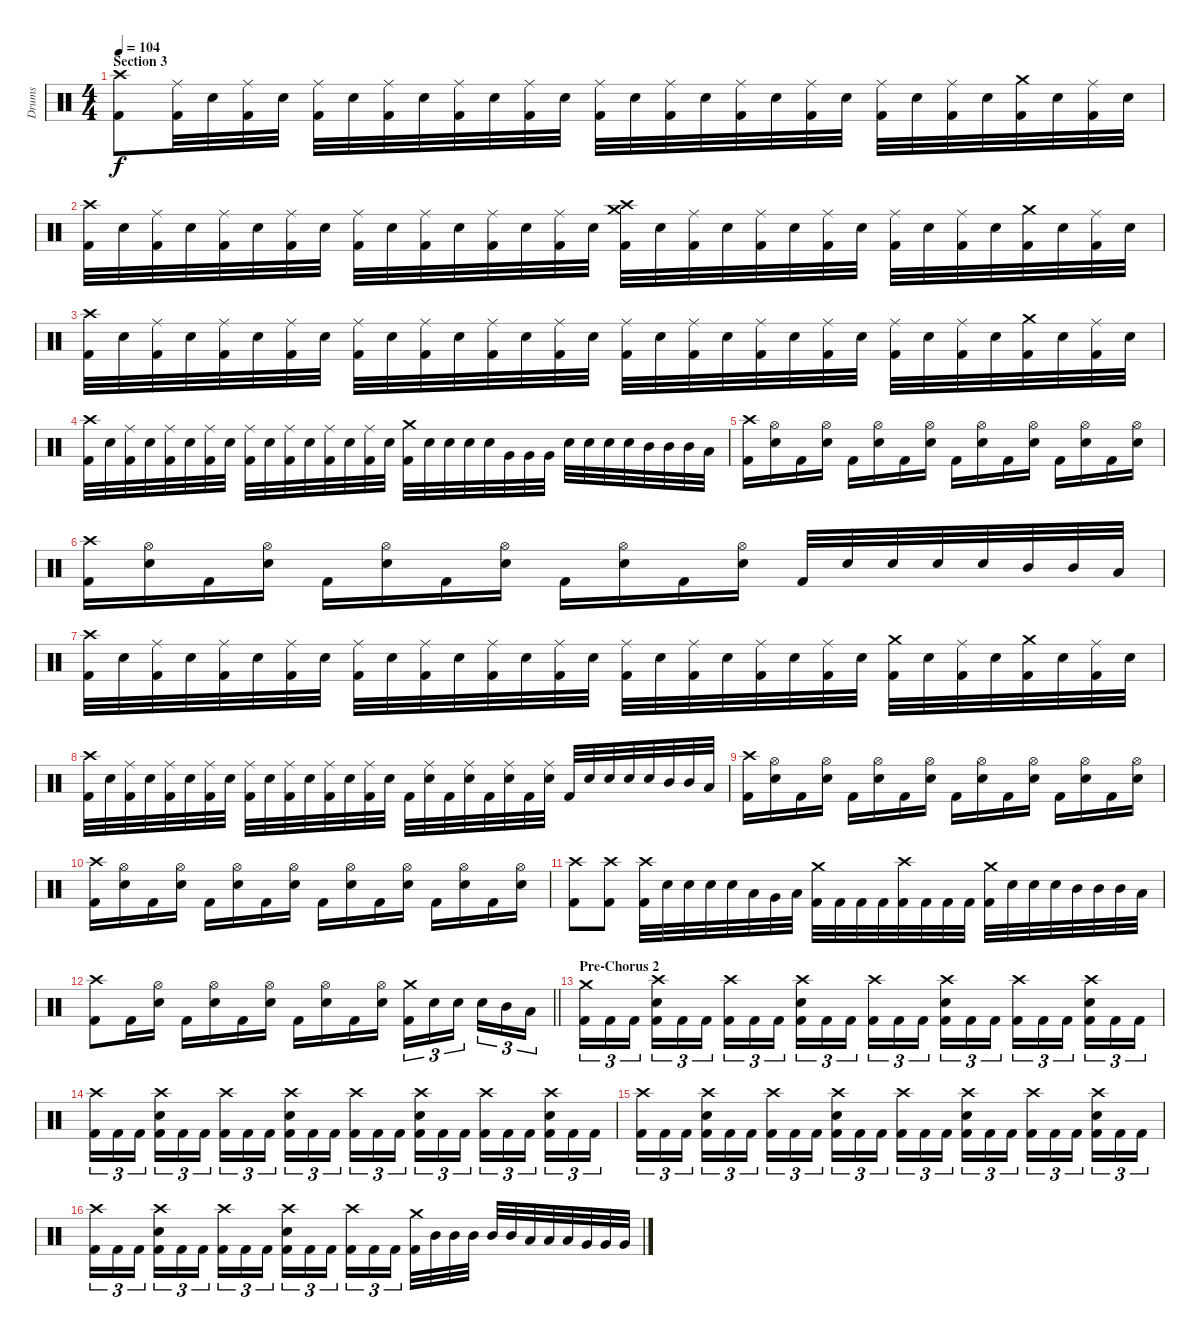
\track ("Drums" "Drums") {instrument percussion}
\staff {score}
\articulation defaults
\ts (4 4)
\section ("" "Section 3")
\tempo 104
\clef neutral
\ks c
("Crash high (hit)" "Kick (hit) 2").8{dy f} ("Ride (middle)" "Kick (hit) 2").32 "Electric Snare (hit)".32 ("Ride (middle)" "Kick (hit) 2").32 "Electric Snare (hit)".32 ("Ride (middle)" "Kick (hit) 2").32 "Electric Snare (hit)".32 ("Ride (middle)" "Kick (hit) 2").32 "Electric Snare (hit)".32 ("Ride (middle)" "Kick (hit) 2").32 "Electric Snare (hit)".32 ("Ride (middle)" "Kick (hit) 2").32 "Electric Snare (hit)".32 ("Ride (middle)" "Kick (hit) 2").32 "Electric Snare (hit)".32 ("Ride (middle)" "Kick (hit) 2").32 "Electric Snare (hit)".32 ("Ride (middle)" "Kick (hit) 2").32 "Electric Snare (hit)".32 ("Ride (middle)" "Kick (hit) 2").32 "Electric Snare (hit)".32 ("Ride (middle)" "Kick (hit) 2").32 "Electric Snare (hit)".32 ("Ride (middle)" "Kick (hit) 2").32 "Electric Snare (hit)".32 ("Crash medium (hit)" "Kick (hit) 2").32 "Electric Snare (hit)".32 ("Ride (middle)" "Kick (hit) 2").32 "Electric Snare (hit)".32 |
("Crash high (hit)" "Kick (hit) 2").32 "Electric Snare (hit)".32 ("Ride (middle)" "Kick (hit) 2").32 "Electric Snare (hit)".32 ("Ride (middle)" "Kick (hit) 2").32 "Electric Snare (hit)".32 ("Ride (middle)" "Kick (hit) 2").32 "Electric Snare (hit)".32 ("Ride (middle)" "Kick (hit) 2").32 "Electric Snare (hit)".32 ("Ride (middle)" "Kick (hit) 2").32 "Electric Snare (hit)".32 ("Ride (middle)" "Kick (hit) 2").32 "Electric Snare (hit)".32 ("Ride (middle)" "Kick (hit) 2").32 "Electric Snare (hit)".32 ("Crash medium (hit)" "Crash high (hit)" "Kick (hit) 2").32 "Electric Snare (hit)".32 ("Ride (middle)" "Kick (hit) 2").32 "Electric Snare (hit)".32 ("Ride (middle)" "Kick (hit) 2").32 "Electric Snare (hit)".32 ("Ride (middle)" "Kick (hit) 2").32 "Electric Snare (hit)".32 ("Ride (middle)" "Kick (hit) 2").32 "Electric Snare (hit)".32 ("Ride (middle)" "Kick (hit) 2").32 "Electric Snare (hit)".32 ("Crash medium (hit)" "Kick (hit) 2").32 "Electric Snare (hit)".32 ("Ride (middle)" "Kick (hit) 2").32 "Electric Snare (hit)".32 |
("Crash high (hit)" "Kick (hit) 2").32 "Electric Snare (hit)".32 ("Ride (middle)" "Kick (hit) 2").32 "Electric Snare (hit)".32 ("Ride (middle)" "Kick (hit) 2").32 "Electric Snare (hit)".32 ("Ride (middle)" "Kick (hit) 2").32 "Electric Snare (hit)".32 ("Ride (middle)" "Kick (hit) 2").32 "Electric Snare (hit)".32 ("Ride (middle)" "Kick (hit) 2").32 "Electric Snare (hit)".32 ("Ride (middle)" "Kick (hit) 2").32 "Electric Snare (hit)".32 ("Ride (middle)" "Kick (hit) 2").32 "Electric Snare (hit)".32 ("Ride (middle)" "Kick (hit) 2").32 "Electric Snare (hit)".32 ("Ride (middle)" "Kick (hit) 2").32 "Electric Snare (hit)".32 ("Ride (middle)" "Kick (hit) 2").32 "Electric Snare (hit)".32 ("Ride (middle)" "Kick (hit) 2").32 "Electric Snare (hit)".32 ("Ride (middle)" "Kick (hit) 2").32 "Electric Snare (hit)".32 ("Ride (middle)" "Kick (hit) 2").32 "Electric Snare (hit)".32 ("Crash medium (hit)" "Kick (hit) 2").32 "Electric Snare (hit)".32 ("Ride (middle)" "Kick (hit) 2").32 "Electric Snare (hit)".32 |
("Crash high (hit)" "Kick (hit) 2").32 "Electric Snare (hit)".32 ("Ride (middle)" "Kick (hit) 2").32 "Electric Snare (hit)".32 ("Ride (middle)" "Kick (hit) 2").32 "Electric Snare (hit)".32 ("Ride (middle)" "Kick (hit) 2").32 "Electric Snare (hit)".32 ("Ride (middle)" "Kick (hit) 2").32 "Electric Snare (hit)".32 ("Ride (middle)" "Kick (hit) 2").32 "Electric Snare (hit)".32 ("Ride (middle)" "Kick (hit) 2").32 "Electric Snare (hit)".32 ("Ride (middle)" "Kick (hit) 2").32 "Electric Snare (hit)".32 ("Crash medium (hit)" "Kick (hit) 2").32 "Electric Snare (hit)".32 "Electric Snare (hit)".32 "Electric Snare (hit)".32 "Electric Snare (hit)".32 "Very Low Tom (hit)".32 "Very Low Tom (hit)".32 "Very Low Tom (hit)".32 "Electric Snare (hit)".32 "Electric Snare (hit)".32 "Electric Snare (hit)".32 "Electric Snare (hit)".32 "Mid Tom (hit)".32 "Mid Tom (hit)".32 "Mid Tom (hit)".32 "Low Tom (hit)".32 |
("Crash high (hit)" "Kick (hit) 2").16 ("Hi-Hat (open)" "Electric Snare (hit)").16 "Kick (hit) 2".16 ("Hi-Hat (open)" "Electric Snare (hit)").16 "Kick (hit) 2".16 ("Hi-Hat (open)" "Electric Snare (hit)").16 "Kick (hit) 2".16 ("Hi-Hat (open)" "Electric Snare (hit)").16 "Kick (hit) 2".16 ("Hi-Hat (open)" "Electric Snare (hit)").16 "Kick (hit) 2".16 ("Hi-Hat (open)" "Electric Snare (hit)").16 "Kick (hit) 2".16 ("Hi-Hat (open)" "Electric Snare (hit)").16 "Kick (hit) 2".16 ("Hi-Hat (open)" "Electric Snare (hit)").16 |
("Crash high (hit)" "Kick (hit) 2").16 ("Hi-Hat (open)" "Electric Snare (hit)").16 "Kick (hit) 2".16 ("Hi-Hat (open)" "Electric Snare (hit)").16 "Kick (hit) 2".16 ("Hi-Hat (open)" "Electric Snare (hit)").16 "Kick (hit) 2".16 ("Hi-Hat (open)" "Electric Snare (hit)").16 "Kick (hit) 2".16 ("Hi-Hat (open)" "Electric Snare (hit)").16 "Kick (hit) 2".16 ("Hi-Hat (open)" "Electric Snare (hit)").16 "Kick (hit) 2".32 "Electric Snare (hit)".32 "Electric Snare (hit)".32 "Electric Snare (hit)".32 "Electric Snare (hit)".32 "Mid Tom (hit)".32 "Mid Tom (hit)".32 "Low Tom (hit)".32 |
("Crash high (hit)" "Kick (hit) 2").32 "Electric Snare (hit)".32 ("Ride (middle)" "Kick (hit) 2").32 "Electric Snare (hit)".32 ("Ride (middle)" "Kick (hit) 2").32 "Electric Snare (hit)".32 ("Ride (middle)" "Kick (hit) 2").32 "Electric Snare (hit)".32 ("Ride (middle)" "Kick (hit) 2").32 "Electric Snare (hit)".32 ("Ride (middle)" "Kick (hit) 2").32 "Electric Snare (hit)".32 ("Ride (middle)" "Kick (hit) 2").32 "Electric Snare (hit)".32 ("Ride (middle)" "Kick (hit) 2").32 "Electric Snare (hit)".32 ("Ride (middle)" "Kick (hit) 2").32 "Electric Snare (hit)".32 ("Ride (middle)" "Kick (hit) 2").32 "Electric Snare (hit)".32 ("Ride (middle)" "Kick (hit) 2").32 "Electric Snare (hit)".32 ("Ride (middle)" "Kick (hit) 2").32 "Electric Snare (hit)".32 ("Crash medium (hit)" "Kick (hit) 2").32 "Electric Snare (hit)".32 ("Ride (middle)" "Kick (hit) 2").32 "Electric Snare (hit)".32 ("Crash medium (hit)" "Kick (hit) 2").32 "Electric Snare (hit)".32 ("Ride (middle)" "Kick (hit) 2").32 "Electric Snare (hit)".32 |
("Crash high (hit)" "Kick (hit) 2").32 "Electric Snare (hit)".32 ("Ride (middle)" "Kick (hit) 2").32 "Electric Snare (hit)".32 ("Ride (middle)" "Kick (hit) 2").32 "Electric Snare (hit)".32 ("Ride (middle)" "Kick (hit) 2").32 "Electric Snare (hit)".32 ("Ride (middle)" "Kick (hit) 2").32 "Electric Snare (hit)".32 ("Ride (middle)" "Kick (hit) 2").32 "Electric Snare (hit)".32 ("Ride (middle)" "Kick (hit) 2").32 "Electric Snare (hit)".32 ("Ride (middle)" "Kick (hit) 2").32 "Electric Snare (hit)".32 "Kick (hit) 2".32 ("Ride (middle)" "Electric Snare (hit)").32 "Kick (hit) 2".32 ("Ride (middle)" "Electric Snare (hit)").32 "Kick (hit) 2".32 ("Ride (middle)" "Electric Snare (hit)").32 "Kick (hit) 2".32 ("Ride (middle)" "Electric Snare (hit)").32 "Kick (hit) 2".32 "Electric Snare (hit)".32 "Electric Snare (hit)".32 "Electric Snare (hit)".32 "Electric Snare (hit)".32 "Mid Tom (hit)".32 "Mid Tom (hit)".32 "Low Tom (hit)".32 |
("Crash high (hit)" "Kick (hit) 2").16 ("Hi-Hat (open)" "Electric Snare (hit)").16 "Kick (hit) 2".16 ("Hi-Hat (open)" "Electric Snare (hit)").16 "Kick (hit) 2".16 ("Hi-Hat (open)" "Electric Snare (hit)").16 "Kick (hit) 2".16 ("Hi-Hat (open)" "Electric Snare (hit)").16 "Kick (hit) 2".16 ("Hi-Hat (open)" "Electric Snare (hit)").16 "Kick (hit) 2".16 ("Hi-Hat (open)" "Electric Snare (hit)").16 "Kick (hit) 2".16 ("Hi-Hat (open)" "Electric Snare (hit)").16 "Kick (hit) 2".16 ("Hi-Hat (open)" "Electric Snare (hit)").16 |
("Crash high (hit)" "Kick (hit) 2").16 ("Hi-Hat (open)" "Electric Snare (hit)").16 "Kick (hit) 2".16 ("Hi-Hat (open)" "Electric Snare (hit)").16 "Kick (hit) 2".16 ("Hi-Hat (open)" "Electric Snare (hit)").16 "Kick (hit) 2".16 ("Hi-Hat (open)" "Electric Snare (hit)").16 "Kick (hit) 2".16 ("Hi-Hat (open)" "Electric Snare (hit)").16 "Kick (hit) 2".16 ("Hi-Hat (open)" "Electric Snare (hit)").16 "Kick (hit) 2".16 ("Hi-Hat (open)" "Electric Snare (hit)").16 "Kick (hit) 2".16 ("Hi-Hat (open)" "Electric Snare (hit)").16 |
("Crash high (hit)" "Kick (hit) 2").8 ("Crash high (hit)" "Kick (hit) 2").8 ("Crash high (hit)" "Kick (hit) 2").32 "Electric Snare (hit)".32 "Electric Snare (hit)".32 "Electric Snare (hit)".32 "Electric Snare (hit)".32 "Low Tom (hit)".32 "Very Low Tom (hit)".32 "Low Floor Tom (hit)".32 ("Crash medium (hit)" "Kick (hit) 2").32 "Kick (hit) 2".32 "Kick (hit) 2".32 "Kick (hit) 2".32 ("Crash high (hit)" "Kick (hit) 2").32 "Kick (hit) 2".32 "Kick (hit) 2".32 "Kick (hit) 2".32 ("Crash medium (hit)" "Kick (hit) 2").32 "Electric Snare (hit)".32 "Electric Snare (hit)".32 "Electric Snare (hit)".32 "Mid Tom (hit)".32 "Mid Tom (hit)".32 "Mid Tom (hit)".32 "Low Tom (hit)".32 |
\barLineRight lightlight
("Crash high (hit)" "Kick (hit) 2").8 "Kick (hit) 2".16 ("Hi-Hat (open)" "Electric Snare (hit)").16 "Kick (hit) 2".16 ("Hi-Hat (open)" "Electric Snare (hit)").16 "Kick (hit) 2".16 ("Hi-Hat (open)" "Electric Snare (hit)").16 "Kick (hit) 2".16 ("Hi-Hat (open)" "Electric Snare (hit)").16 "Kick (hit) 2".16 ("Hi-Hat (open)" "Electric Snare (hit)").16 ("Crash medium (hit)" "Kick (hit) 2").16{tu (3 2)} "Electric Snare (hit)".16{tu (3 2)} "Electric Snare (hit)".16{tu (3 2) beam splitsecondary} "Electric Snare (hit)".16{tu (3 2)} "Mid Tom (hit)".16{tu (3 2)} "Low Tom (hit)".16{tu (3 2)} |
\section ("" "Pre-Chorus 2")
("Crash medium (hit)" "Kick (hit) 2").16{tu (3 2)} "Kick (hit) 2".16{tu (3 2)} "Kick (hit) 2".16{tu (3 2) beam splitsecondary} ("Crash high (hit)" "Electric Snare (hit)" "Kick (hit) 2").16{tu (3 2)} "Kick (hit) 2".16{tu (3 2)} "Kick (hit) 2".16{tu (3 2)} ("Crash high (hit)" "Kick (hit) 2").16{tu (3 2)} "Kick (hit) 2".16{tu (3 2)} "Kick (hit) 2".16{tu (3 2) beam splitsecondary} ("Crash high (hit)" "Electric Snare (hit)" "Kick (hit) 2").16{tu (3 2)} "Kick (hit) 2".16{tu (3 2)} "Kick (hit) 2".16{tu (3 2)} ("Crash high (hit)" "Kick (hit) 2").16{tu (3 2)} "Kick (hit) 2".16{tu (3 2)} "Kick (hit) 2".16{tu (3 2) beam splitsecondary} ("Crash high (hit)" "Electric Snare (hit)" "Kick (hit) 2").16{tu (3 2)} "Kick (hit) 2".16{tu (3 2)} "Kick (hit) 2".16{tu (3 2)} ("Crash high (hit)" "Kick (hit) 2").16{tu (3 2)} "Kick (hit) 2".16{tu (3 2)} "Kick (hit) 2".16{tu (3 2) beam splitsecondary} ("Crash high (hit)" "Electric Snare (hit)" "Kick (hit) 2").16{tu (3 2)} "Kick (hit) 2".16{tu (3 2)} "Kick (hit) 2".16{tu (3 2)} |
("Crash high (hit)" "Kick (hit) 2").16{tu (3 2)} "Kick (hit) 2".16{tu (3 2)} "Kick (hit) 2".16{tu (3 2) beam splitsecondary} ("Crash high (hit)" "Electric Snare (hit)" "Kick (hit) 2").16{tu (3 2)} "Kick (hit) 2".16{tu (3 2)} "Kick (hit) 2".16{tu (3 2)} ("Crash high (hit)" "Kick (hit) 2").16{tu (3 2)} "Kick (hit) 2".16{tu (3 2)} "Kick (hit) 2".16{tu (3 2) beam splitsecondary} ("Crash high (hit)" "Electric Snare (hit)" "Kick (hit) 2").16{tu (3 2)} "Kick (hit) 2".16{tu (3 2)} "Kick (hit) 2".16{tu (3 2)} ("Crash high (hit)" "Kick (hit) 2").16{tu (3 2)} "Kick (hit) 2".16{tu (3 2)} "Kick (hit) 2".16{tu (3 2) beam splitsecondary} ("Crash high (hit)" "Electric Snare (hit)" "Kick (hit) 2").16{tu (3 2)} "Kick (hit) 2".16{tu (3 2)} "Kick (hit) 2".16{tu (3 2)} ("Crash high (hit)" "Kick (hit) 2").16{tu (3 2)} "Kick (hit) 2".16{tu (3 2)} "Kick (hit) 2".16{tu (3 2) beam splitsecondary} ("Crash high (hit)" "Electric Snare (hit)" "Kick (hit) 2").16{tu (3 2)} "Kick (hit) 2".16{tu (3 2)} "Kick (hit) 2".16{tu (3 2)} |
("Crash high (hit)" "Kick (hit) 2").16{tu (3 2)} "Kick (hit) 2".16{tu (3 2)} "Kick (hit) 2".16{tu (3 2) beam splitsecondary} ("Crash high (hit)" "Electric Snare (hit)" "Kick (hit) 2").16{tu (3 2)} "Kick (hit) 2".16{tu (3 2)} "Kick (hit) 2".16{tu (3 2)} ("Crash high (hit)" "Kick (hit) 2").16{tu (3 2)} "Kick (hit) 2".16{tu (3 2)} "Kick (hit) 2".16{tu (3 2) beam splitsecondary} ("Crash high (hit)" "Electric Snare (hit)" "Kick (hit) 2").16{tu (3 2)} "Kick (hit) 2".16{tu (3 2)} "Kick (hit) 2".16{tu (3 2)} ("Crash high (hit)" "Kick (hit) 2").16{tu (3 2)} "Kick (hit) 2".16{tu (3 2)} "Kick (hit) 2".16{tu (3 2) beam splitsecondary} ("Crash high (hit)" "Electric Snare (hit)" "Kick (hit) 2").16{tu (3 2)} "Kick (hit) 2".16{tu (3 2)} "Kick (hit) 2".16{tu (3 2)} ("Crash high (hit)" "Kick (hit) 2").16{tu (3 2)} "Kick (hit) 2".16{tu (3 2)} "Kick (hit) 2".16{tu (3 2) beam splitsecondary} ("Crash high (hit)" "Electric Snare (hit)" "Kick (hit) 2").16{tu (3 2)} "Kick (hit) 2".16{tu (3 2)} "Kick (hit) 2".16{tu (3 2)} |
("Crash high (hit)" "Kick (hit) 2").16{tu (3 2)} "Kick (hit) 2".16{tu (3 2)} "Kick (hit) 2".16{tu (3 2) beam splitsecondary} ("Crash high (hit)" "Electric Snare (hit)" "Kick (hit) 2").16{tu (3 2)} "Kick (hit) 2".16{tu (3 2)} "Kick (hit) 2".16{tu (3 2)} ("Crash high (hit)" "Kick (hit) 2").16{tu (3 2)} "Kick (hit) 2".16{tu (3 2)} "Kick (hit) 2".16{tu (3 2) beam splitsecondary} ("Crash high (hit)" "Electric Snare (hit)" "Kick (hit) 2").16{tu (3 2)} "Kick (hit) 2".16{tu (3 2)} "Kick (hit) 2".16{tu (3 2)} ("Crash high (hit)" "Kick (hit) 2").16{tu (3 2)} "Kick (hit) 2".16{tu (3 2)} "Kick (hit) 2".16{tu (3 2) beam splitsecondary} ("Crash medium (hit)" "Kick (hit) 2").32 "Mid Tom (hit)".32 "Mid Tom (hit)".32 "Mid Tom (hit)".32 "Mid Tom (hit)".32 "Mid Tom (hit)".32 "Low Tom (hit)".32 "Low Tom (hit)".32 "Low Tom (hit)".32 "Very Low Tom (hit)".32 "Very Low Tom (hit)".32 "Very Low Tom (hit)".32
